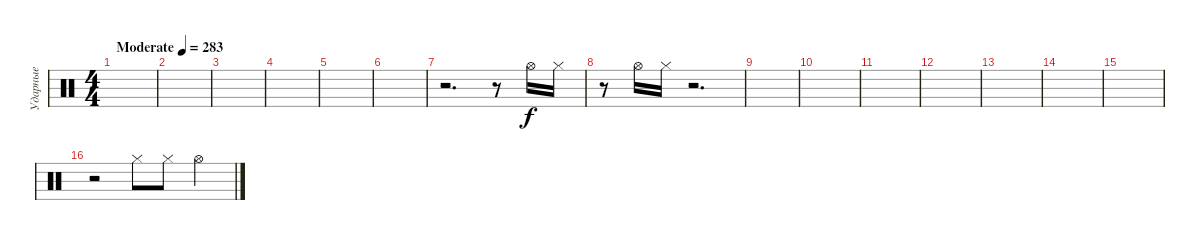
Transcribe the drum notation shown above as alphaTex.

\track ("Ударные" "Ударные") {instrument percussion}
\staff {score}
\articulation defaults
\ts (4 4)
\tempo (283 "Moderate")
\clef neutral
\ks c
|
|
|
|
|
|
r.2{d} r.8 "Hi-Hat (open)".16 "Hi-Hat (closed)".16 |
r.8 "Hi-Hat (open)".16 "Hi-Hat (closed)".16 r.2{d} |
|
|
|
|
|
|
|
r.2 "Hi-Hat (closed)".8 "Hi-Hat (closed)".8 "Hi-Hat (open)".4
